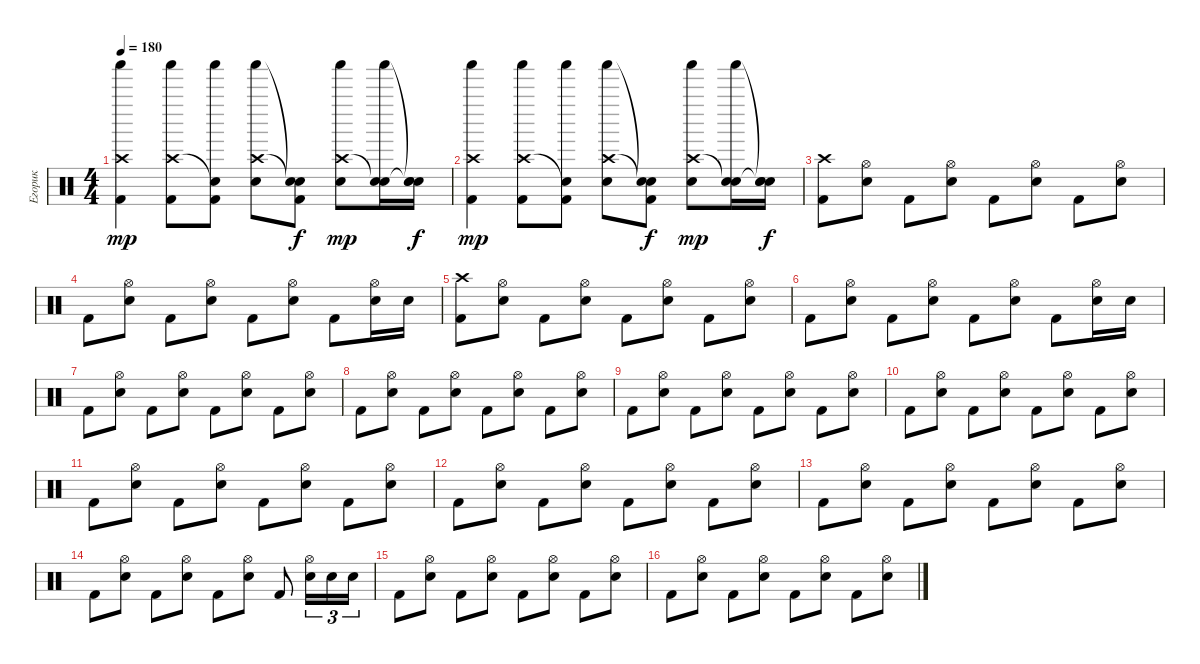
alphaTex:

\track ("Егорик" "Егорик") {instrument percussion}
\staff {score}
\articulation defaults
\ts (4 4)
\tempo 180
\clef neutral
\ks c
("Crash high (hit)" "Shaker (hit)" "Kick (hit) 2").4{dy mp} ("Crash high (hit)" "Shaker (hit)" "Kick (hit) 2").8 ("Snare (hit)"{t} "Shaker (hit)" "Kick (hit) 2").8 ("Crash high (hit)" "Shaker (hit)" "Snare (hit) 2").8 ("Snare (hit)"{t} "Snare (hit)"{t} "Kick (hit) 2").8{dy f} ("Crash high (hit)" "Shaker (hit)" "Snare (hit) 2").8{dy mp} ("Snare (hit)"{t} "Shaker (hit)" "Snare (hit) 2").16 ("Snare (hit)"{t} "Snare (hit)"{t} "Snare (hit) 2").16{dy f} |
("Crash high (hit)" "Shaker (hit)" "Kick (hit) 2").4{dy mp} ("Crash high (hit)" "Shaker (hit)" "Kick (hit) 2").8 ("Snare (hit)"{t} "Shaker (hit)" "Kick (hit) 2").8 ("Crash high (hit)" "Shaker (hit)" "Snare (hit) 2").8 ("Snare (hit)"{t} "Snare (hit)"{t} "Kick (hit) 2").8{dy f} ("Crash high (hit)" "Shaker (hit)" "Snare (hit) 2").8{dy mp} ("Snare (hit)"{t} "Shaker (hit)" "Snare (hit) 2").16 ("Snare (hit)"{t} "Snare (hit)"{t} "Snare (hit) 2").16{dy f} |
("Crash high (hit)" "Kick (hit) 2").8 ("Hi-Hat (open)" "Electric Snare (hit)").8 "Kick (hit) 2".8 ("Hi-Hat (open)" "Electric Snare (hit)").8 "Kick (hit) 2".8 ("Hi-Hat (open)" "Electric Snare (hit)").8 "Kick (hit) 2".8 ("Hi-Hat (open)" "Electric Snare (hit)").8 |
"Kick (hit) 2".8 ("Hi-Hat (open)" "Electric Snare (hit)").8 "Kick (hit) 2".8 ("Hi-Hat (open)" "Electric Snare (hit)").8 "Kick (hit) 2".8 ("Hi-Hat (open)" "Electric Snare (hit)").8 "Kick (hit) 2".8 ("Hi-Hat (open)" "Electric Snare (hit)").16 "Electric Snare (hit)".16 |
("Crash high (hit)" "Kick (hit) 2").8 ("Hi-Hat (open)" "Electric Snare (hit)").8 "Kick (hit) 2".8 ("Hi-Hat (open)" "Electric Snare (hit)").8 "Kick (hit) 2".8 ("Hi-Hat (open)" "Electric Snare (hit)").8 "Kick (hit) 2".8 ("Hi-Hat (open)" "Electric Snare (hit)").8 |
"Kick (hit) 2".8 ("Hi-Hat (open)" "Electric Snare (hit)").8 "Kick (hit) 2".8 ("Hi-Hat (open)" "Electric Snare (hit)").8 "Kick (hit) 2".8 ("Hi-Hat (open)" "Electric Snare (hit)").8 "Kick (hit) 2".8 ("Hi-Hat (open)" "Electric Snare (hit)").16 "Electric Snare (hit)".16 |
"Kick (hit) 2".8 ("Hi-Hat (open)" "Electric Snare (hit)").8 "Kick (hit) 2".8 ("Hi-Hat (open)" "Electric Snare (hit)").8 "Kick (hit) 2".8 ("Hi-Hat (open)" "Electric Snare (hit)").8 "Kick (hit) 2".8 ("Hi-Hat (open)" "Electric Snare (hit)").8 |
"Kick (hit) 2".8 ("Hi-Hat (open)" "Electric Snare (hit)").8 "Kick (hit) 2".8 ("Hi-Hat (open)" "Electric Snare (hit)").8 "Kick (hit) 2".8 ("Hi-Hat (open)" "Electric Snare (hit)").8 "Kick (hit) 2".8 ("Hi-Hat (open)" "Electric Snare (hit)").8 |
"Kick (hit) 2".8 ("Hi-Hat (open)" "Electric Snare (hit)").8 "Kick (hit) 2".8 ("Hi-Hat (open)" "Electric Snare (hit)").8 "Kick (hit) 2".8 ("Hi-Hat (open)" "Electric Snare (hit)").8 "Kick (hit) 2".8 ("Hi-Hat (open)" "Electric Snare (hit)").8 |
"Kick (hit) 2".8 ("Hi-Hat (open)" "Electric Snare (hit)").8 "Kick (hit) 2".8 ("Hi-Hat (open)" "Electric Snare (hit)").8 "Kick (hit) 2".8 ("Hi-Hat (open)" "Electric Snare (hit)").8 "Kick (hit) 2".8 ("Hi-Hat (open)" "Electric Snare (hit)").8 |
"Kick (hit) 2".8 ("Hi-Hat (open)" "Electric Snare (hit)").8 "Kick (hit) 2".8 ("Hi-Hat (open)" "Electric Snare (hit)").8 "Kick (hit) 2".8 ("Hi-Hat (open)" "Electric Snare (hit)").8 "Kick (hit) 2".8 ("Hi-Hat (open)" "Electric Snare (hit)").8 |
"Kick (hit) 2".8 ("Hi-Hat (open)" "Electric Snare (hit)").8 "Kick (hit) 2".8 ("Hi-Hat (open)" "Electric Snare (hit)").8 "Kick (hit) 2".8 ("Hi-Hat (open)" "Electric Snare (hit)").8 "Kick (hit) 2".8 ("Hi-Hat (open)" "Electric Snare (hit)").8 |
"Kick (hit) 2".8 ("Hi-Hat (open)" "Electric Snare (hit)").8 "Kick (hit) 2".8 ("Hi-Hat (open)" "Electric Snare (hit)").8 "Kick (hit) 2".8 ("Hi-Hat (open)" "Electric Snare (hit)").8 "Kick (hit) 2".8 ("Hi-Hat (open)" "Electric Snare (hit)").8 |
"Kick (hit) 2".8 ("Hi-Hat (open)" "Electric Snare (hit)").8 "Kick (hit) 2".8 ("Hi-Hat (open)" "Electric Snare (hit)").8 "Kick (hit) 2".8 ("Hi-Hat (open)" "Electric Snare (hit)").8 "Kick (hit) 2".8 ("Hi-Hat (open)" "Electric Snare (hit)").16{tu (3 2)} "Electric Snare (hit)".16{tu (3 2)} "Electric Snare (hit)".16{tu (3 2)} |
"Kick (hit) 2".8 ("Hi-Hat (open)" "Electric Snare (hit)").8 "Kick (hit) 2".8 ("Hi-Hat (open)" "Electric Snare (hit)").8 "Kick (hit) 2".8 ("Hi-Hat (open)" "Electric Snare (hit)").8 "Kick (hit) 2".8 ("Hi-Hat (open)" "Electric Snare (hit)").8 |
"Kick (hit) 2".8 ("Hi-Hat (open)" "Electric Snare (hit)").8 "Kick (hit) 2".8 ("Hi-Hat (open)" "Electric Snare (hit)").8 "Kick (hit) 2".8 ("Hi-Hat (open)" "Electric Snare (hit)").8 "Kick (hit) 2".8 ("Hi-Hat (open)" "Electric Snare (hit)").8
